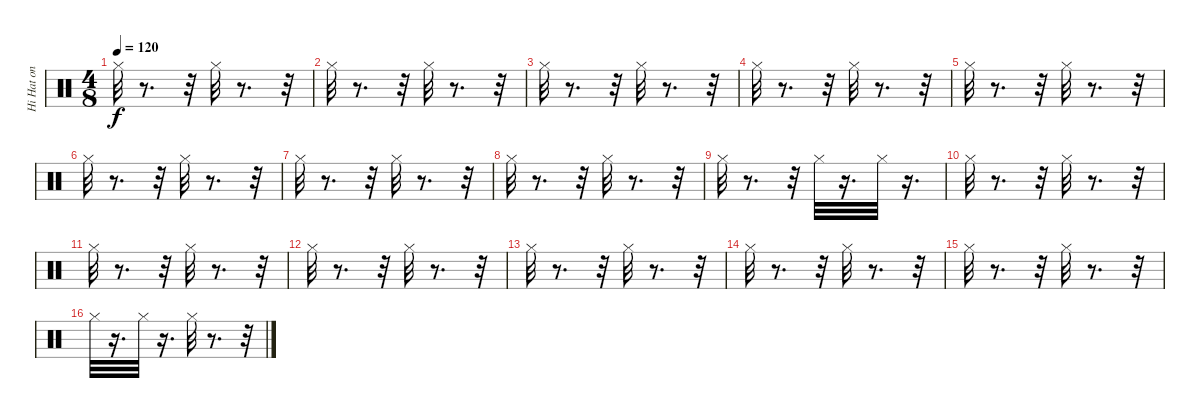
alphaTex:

\track ("Hi Hat on BD" "Hi Hat on ") {instrument percussion}
\staff {score}
\articulation defaults
\ts (4 8)
\tempo 120
\clef neutral
\ks c "Hi-Hat (closed)".32{dy f}
r.8{d} r.32 "Hi-Hat (closed)".32 r.8{d} r.32 |
"Hi-Hat (closed)".32 r.8{d} r.32 "Hi-Hat (closed)".32 r.8{d} r.32 |
"Hi-Hat (closed)".32 r.8{d} r.32 "Hi-Hat (closed)".32 r.8{d} r.32 |
"Hi-Hat (closed)".32 r.8{d} r.32 "Hi-Hat (closed)".32 r.8{d} r.32 |
"Hi-Hat (closed)".32 r.8{d} r.32 "Hi-Hat (closed)".32 r.8{d} r.32 |
"Hi-Hat (closed)".32 r.8{d} r.32 "Hi-Hat (closed)".32 r.8{d} r.32 |
"Hi-Hat (closed)".32 r.8{d} r.32 "Hi-Hat (closed)".32 r.8{d} r.32 |
"Hi-Hat (closed)".32 r.8{d} r.32 "Hi-Hat (closed)".32 r.8{d} r.32 |
"Hi-Hat (closed)".32 r.8{d} r.32 "Hi-Hat (closed)".32 r.16{d} "Hi-Hat (closed)".32 r.16{d} |
"Hi-Hat (closed)".32 r.8{d} r.32 "Hi-Hat (closed)".32 r.8{d} r.32 |
"Hi-Hat (closed)".32 r.8{d} r.32 "Hi-Hat (closed)".32 r.8{d} r.32 |
"Hi-Hat (closed)".32 r.8{d} r.32 "Hi-Hat (closed)".32 r.8{d} r.32 |
"Hi-Hat (closed)".32 r.8{d} r.32 "Hi-Hat (closed)".32 r.8{d} r.32 |
"Hi-Hat (closed)".32 r.8{d} r.32 "Hi-Hat (closed)".32 r.8{d} r.32 |
"Hi-Hat (closed)".32 r.8{d} r.32 "Hi-Hat (closed)".32 r.8{d} r.32 |
"Hi-Hat (closed)".32 r.16{d} "Hi-Hat (closed)".32 r.16{d} "Hi-Hat (closed)".32 r.8{d} r.32
